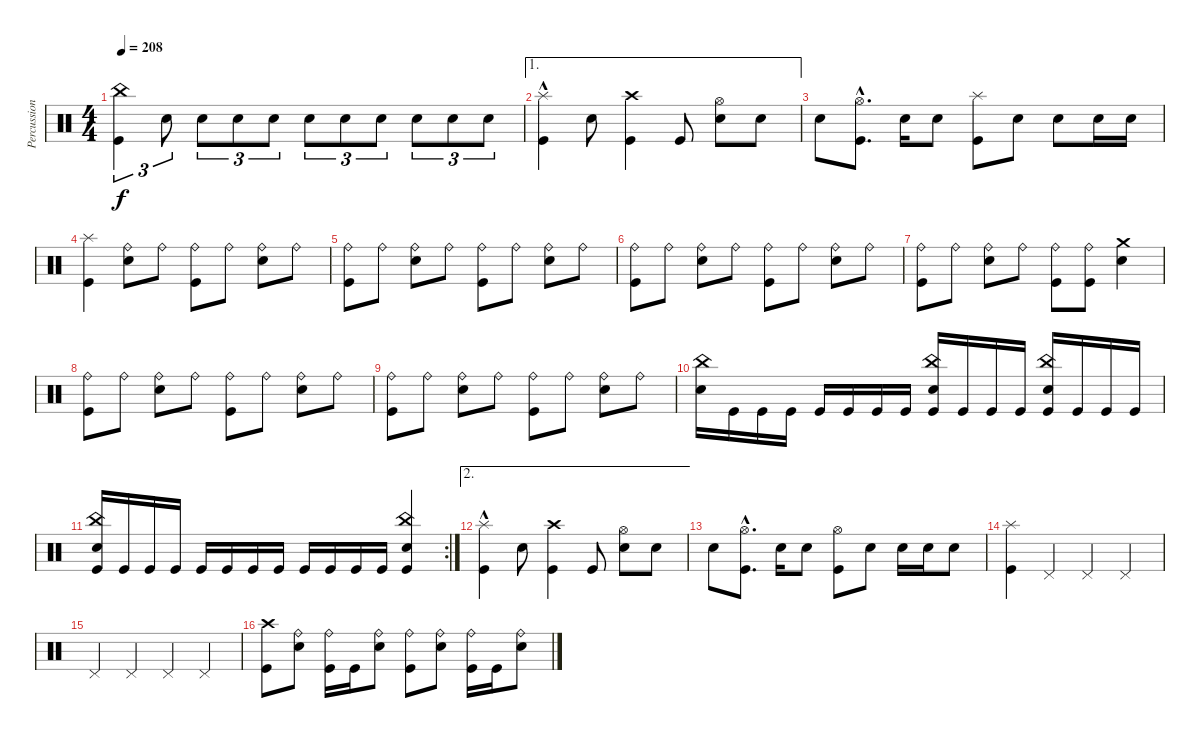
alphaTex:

\track ("Percussions" "Percussion") {instrument percussion}
\staff {score}
\articulation defaults
\ts (4 4)
\tempo 208
\clef neutral
\ks c
("Kick (hit)" "China (hit)").4{tu (3 2) dy f} "Electric Snare (hit)".8{tu (3 2)} "Electric Snare (hit)".8{tu (3 2)} "Electric Snare (hit)".8{tu (3 2)} "Electric Snare (hit)".8{tu (3 2)} "Electric Snare (hit)".8{tu (3 2)} "Electric Snare (hit)".8{tu (3 2)} "Electric Snare (hit)".8{tu (3 2)} "Electric Snare (hit)".8{tu (3 2)} "Electric Snare (hit)".8{tu (3 2)} "Electric Snare (hit)".8{tu (3 2)} |
\ae 1
("Kick (hit)"{hac} "Splash (hit)").4 "Electric Snare (hit)".8 ("Kick (hit)" "Crash high (hit)").4 "Kick (hit)".8 ("Electric Snare (hit)" "Hi-Hat (open)").8 "Electric Snare (hit)".8 |
"Electric Snare (hit)".8 ("Kick (hit)"{hac} "Hi-Hat (open)"{hac}).8{d} "Electric Snare (hit)".16 "Electric Snare (hit)".8 ("Kick (hit)" "Splash (hit)").8 "Electric Snare (hit)".8 "Electric Snare (hit)".8 "Electric Snare (hit)".16 "Electric Snare (hit)".16 |
("Kick (hit)" "Splash (hit)").4 ("Electric Snare (hit)" "Ride (bell)").8 "Ride (bell)".8 ("Kick (hit)" "Ride (bell)").8 "Ride (bell)".8 ("Electric Snare (hit)" "Ride (bell)").8 "Ride (bell)".8 |
("Kick (hit)" "Ride (bell)").8 "Ride (bell)".8 ("Electric Snare (hit)" "Ride (bell)").8 "Ride (bell)".8 ("Kick (hit)" "Ride (bell)").8 "Ride (bell)".8 ("Electric Snare (hit)" "Ride (bell)").8 "Ride (bell)".8 |
("Kick (hit)" "Ride (bell)").8 "Ride (bell)".8 ("Electric Snare (hit)" "Ride (bell)").8 "Ride (bell)".8 ("Kick (hit)" "Ride (bell)").8 "Ride (bell)".8 ("Electric Snare (hit)" "Ride (bell)").8 "Ride (bell)".8 |
("Kick (hit)" "Ride (bell)").8 "Ride (bell)".8 ("Electric Snare (hit)" "Ride (bell)").8 "Ride (bell)".8 ("Kick (hit)" "Ride (bell)").8 ("Kick (hit)" "Ride (bell)").8 ("Electric Snare (hit)" "Crash medium (hit)").4 |
("Kick (hit)" "Ride (bell)").8 "Ride (bell)".8 ("Electric Snare (hit)" "Ride (bell)").8 "Ride (bell)".8 ("Kick (hit)" "Ride (bell)").8 "Ride (bell)".8 ("Electric Snare (hit)" "Ride (bell)").8 "Ride (bell)".8 |
("Kick (hit)" "Ride (bell)").8 "Ride (bell)".8 ("Electric Snare (hit)" "Ride (bell)").8 "Ride (bell)".8 ("Kick (hit)" "Ride (bell)").8 "Ride (bell)".8 ("Electric Snare (hit)" "Ride (bell)").8 "Ride (bell)".8 |
("Electric Snare (hit)" "China (hit)").16 "Kick (hit)".16 "Kick (hit)".16 "Kick (hit)".16 "Kick (hit)".16 "Kick (hit)".16 "Kick (hit)".16 "Kick (hit)".16 ("Kick (hit)" "Electric Snare (hit)" "China (hit)").16 "Kick (hit)".16 "Kick (hit)".16 "Kick (hit)".16 ("Kick (hit)" "Electric Snare (hit)" "China (hit)").16 "Kick (hit)".16 "Kick (hit)".16 "Kick (hit)".16 |
\rc 2
("Kick (hit)" "Electric Snare (hit)" "China (hit)").16 "Kick (hit)".16 "Kick (hit)".16 "Kick (hit)".16 "Kick (hit)".16 "Kick (hit)".16 "Kick (hit)".16 "Kick (hit)".16 "Kick (hit)".16 "Kick (hit)".16 "Kick (hit)".16 "Kick (hit)".16 ("Kick (hit)" "Electric Snare (hit)" "China (hit)").4 |
\ae 2
("Kick (hit)"{hac} "Splash (hit)").4 "Electric Snare (hit)".8 ("Kick (hit)" "Crash high (hit)").4 "Kick (hit)".8 ("Electric Snare (hit)" "Hi-Hat (open)").8 "Electric Snare (hit)".8 |
"Electric Snare (hit)".8 ("Kick (hit)"{hac} "Hi-Hat (open)"{hac}).8{d} "Electric Snare (hit)".16 "Electric Snare (hit)".8 ("Kick (hit)" "Hi-Hat (open)").8 "Electric Snare (hit)".8 "Electric Snare (hit)".16 "Electric Snare (hit)".16 "Electric Snare (hit)".8 |
("Kick (hit)" "Splash (hit)").4 "Pedal Hi-Hat (hit)".4 "Pedal Hi-Hat (hit)".4 "Pedal Hi-Hat (hit)".4 |
"Pedal Hi-Hat (hit)".4 "Pedal Hi-Hat (hit)".4 "Pedal Hi-Hat (hit)".4 "Pedal Hi-Hat (hit)".4 |
("Kick (hit)" "Crash high (hit)").8 ("Electric Snare (hit)" "Ride (bell)").8 ("Kick (hit)" "Ride (bell)").16 "Kick (hit)".16 ("Electric Snare (hit)" "Ride (bell)").8 ("Kick (hit)" "Ride (bell)").8 ("Electric Snare (hit)" "Ride (bell)").8 ("Kick (hit)" "Ride (bell)").16 "Kick (hit)".16 ("Electric Snare (hit)" "Ride (bell)").8
